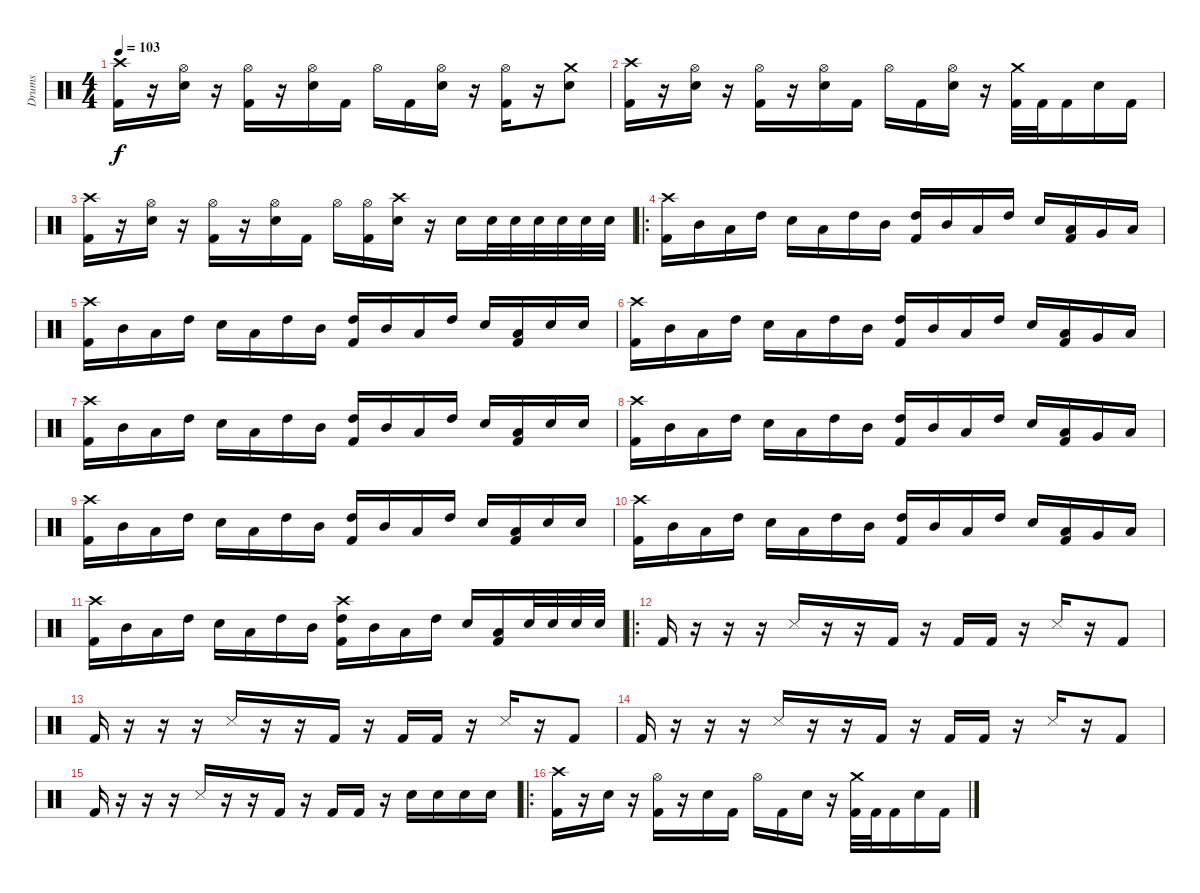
\track ("Drums" "Drums") {instrument percussion}
\staff {score}
\articulation defaults
\ts (4 4)
\tempo 103
\clef neutral
\ks c
("Crash high (hit)" "Kick (hit) 2").16{dy f} r.16 ("Hi-Hat (open)" "Snare (hit) 2").16 r.16 ("Hi-Hat (open)" "Kick (hit) 2").16 r.16 ("Hi-Hat (open)" "Snare (hit) 2").16 "Kick (hit) 2".16 "Hi-Hat (open)".16 "Kick (hit) 2".16 ("Hi-Hat (open)" "Snare (hit) 2").16 r.16 ("Hi-Hat (open)" "Kick (hit) 2").16 r.16 ("Crash medium (hit)" "Snare (hit) 2").8 |
("Crash high (hit)" "Kick (hit) 2").16 r.16 ("Hi-Hat (open)" "Snare (hit) 2").16 r.16 ("Hi-Hat (open)" "Kick (hit) 2").16 r.16 ("Hi-Hat (open)" "Snare (hit) 2").16 "Kick (hit) 2".16 "Hi-Hat (open)".16 "Kick (hit) 2".16 ("Hi-Hat (open)" "Snare (hit) 2").16 r.16 ("Crash medium (hit)" "Kick (hit) 2").32 "Kick (hit) 2".32 "Kick (hit) 2".16 "Snare (hit) 2".16 "Kick (hit) 2".16 |
("Crash high (hit)" "Kick (hit) 2").16 r.16 ("Hi-Hat (open)" "Snare (hit) 2").16 r.16 ("Hi-Hat (open)" "Kick (hit) 2").16 r.16 ("Hi-Hat (open)" "Snare (hit) 2").16 "Kick (hit) 2".16 "Hi-Hat (open)".16 ("Hi-Hat (open)" "Kick (hit) 2").16 ("Crash high (hit)" "Snare (hit) 2").16 r.16 "Snare (hit) 2".16 "Snare (hit) 2".32 "Snare (hit) 2".32 "Snare (hit) 2".32 "Snare (hit) 2".32 "Snare (hit) 2".32 "Snare (hit) 2".32 |
\ro
("Crash high (hit)" "Kick (hit) 2").16 "Mid Tom (hit)".16 "Low Tom (hit)".16 "High Tom (hit)".16 "Snare (hit) 2".16 "Low Tom (hit)".16 "High Tom (hit)".16 "Mid Tom (hit)".16 ("High Tom (hit)" "Kick (hit) 2").16 "Mid Tom (hit)".16 "Low Tom (hit)".16 "High Tom (hit)".16 "Snare (hit) 2".16 ("Low Tom (hit)" "Kick (hit) 2").16 "Very Low Tom (hit)".16 "Low Tom (hit)".16 |
("Crash high (hit)" "Kick (hit) 2").16 "Mid Tom (hit)".16 "Low Tom (hit)".16 "High Tom (hit)".16 "Snare (hit) 2".16 "Low Tom (hit)".16 "High Tom (hit)".16 "Mid Tom (hit)".16 ("High Tom (hit)" "Kick (hit) 2").16 "Mid Tom (hit)".16 "Low Tom (hit)".16 "High Tom (hit)".16 "Snare (hit) 2".16 ("Low Tom (hit)" "Kick (hit) 2").16 "Snare (hit) 2".16 "Snare (hit) 2".16 |
("Crash high (hit)" "Kick (hit) 2").16 "Mid Tom (hit)".16 "Low Tom (hit)".16 "High Tom (hit)".16 "Snare (hit) 2".16 "Low Tom (hit)".16 "High Tom (hit)".16 "Mid Tom (hit)".16 ("High Tom (hit)" "Kick (hit) 2").16 "Mid Tom (hit)".16 "Low Tom (hit)".16 "High Tom (hit)".16 "Snare (hit) 2".16 ("Low Tom (hit)" "Kick (hit) 2").16 "Very Low Tom (hit)".16 "Low Tom (hit)".16 |
("Crash high (hit)" "Kick (hit) 2").16 "Mid Tom (hit)".16 "Low Tom (hit)".16 "High Tom (hit)".16 "Snare (hit) 2".16 "Low Tom (hit)".16 "High Tom (hit)".16 "Mid Tom (hit)".16 ("High Tom (hit)" "Kick (hit) 2").16 "Mid Tom (hit)".16 "Low Tom (hit)".16 "High Tom (hit)".16 "Snare (hit) 2".16 ("Low Tom (hit)" "Kick (hit) 2").16 "Snare (hit) 2".16 "Snare (hit) 2".16 |
("Crash high (hit)" "Kick (hit) 2").16 "Mid Tom (hit)".16 "Low Tom (hit)".16 "High Tom (hit)".16 "Snare (hit) 2".16 "Low Tom (hit)".16 "High Tom (hit)".16 "Mid Tom (hit)".16 ("High Tom (hit)" "Kick (hit) 2").16 "Mid Tom (hit)".16 "Low Tom (hit)".16 "High Tom (hit)".16 "Snare (hit) 2".16 ("Low Tom (hit)" "Kick (hit) 2").16 "Very Low Tom (hit)".16 "Low Tom (hit)".16 |
("Crash high (hit)" "Kick (hit) 2").16 "Mid Tom (hit)".16 "Low Tom (hit)".16 "High Tom (hit)".16 "Snare (hit) 2".16 "Low Tom (hit)".16 "High Tom (hit)".16 "Mid Tom (hit)".16 ("High Tom (hit)" "Kick (hit) 2").16 "Mid Tom (hit)".16 "Low Tom (hit)".16 "High Tom (hit)".16 "Snare (hit) 2".16 ("Low Tom (hit)" "Kick (hit) 2").16 "Snare (hit) 2".16 "Snare (hit) 2".16 |
("Crash high (hit)" "Kick (hit) 2").16 "Mid Tom (hit)".16 "Low Tom (hit)".16 "High Tom (hit)".16 "Snare (hit) 2".16 "Low Tom (hit)".16 "High Tom (hit)".16 "Mid Tom (hit)".16 ("High Tom (hit)" "Kick (hit) 2").16 "Mid Tom (hit)".16 "Low Tom (hit)".16 "High Tom (hit)".16 "Snare (hit) 2".16 ("Low Tom (hit)" "Kick (hit) 2").16 "Very Low Tom (hit)".16 "Low Tom (hit)".16 |
("Crash high (hit)" "Kick (hit) 2").16 "Mid Tom (hit)".16 "Low Tom (hit)".16 "High Tom (hit)".16 "Snare (hit) 2".16 "Low Tom (hit)".16 "High Tom (hit)".16 "Mid Tom (hit)".16 ("Crash high (hit)" "High Tom (hit)" "Kick (hit) 2").16 "Mid Tom (hit)".16 "Low Tom (hit)".16 "High Tom (hit)".16 "Snare (hit) 2".16 ("Low Tom (hit)" "Kick (hit) 2").16 "Snare (hit) 2".32 "Snare (hit) 2".32 "Snare (hit) 2".32 "Snare (hit) 2".32 |
\ro "Kick (hit) 2".16
r.16 r.16 r.16 "Snare (side stick) 3".16 r.16 r.16 "Kick (hit) 2".16 r.16 "Kick (hit) 2".16 "Kick (hit) 2".16 r.16 "Snare (side stick) 3".16 r.16 "Kick (hit) 2".8 |
"Kick (hit) 2".16 r.16 r.16 r.16 "Snare (side stick) 3".16 r.16 r.16 "Kick (hit) 2".16 r.16 "Kick (hit) 2".16 "Kick (hit) 2".16 r.16 "Snare (side stick) 3".16 r.16 "Kick (hit) 2".8 |
"Kick (hit) 2".16 r.16 r.16 r.16 "Snare (side stick) 3".16 r.16 r.16 "Kick (hit) 2".16 r.16 "Kick (hit) 2".16 "Kick (hit) 2".16 r.16 "Snare (side stick) 3".16 r.16 "Kick (hit) 2".8 |
"Kick (hit) 2".16 r.16 r.16 r.16 "Snare (side stick) 3".16 r.16 r.16 "Kick (hit) 2".16 r.16 "Kick (hit) 2".16 "Kick (hit) 2".16 r.16 "Snare (hit) 2".16 "Snare (hit) 2".16 "Snare (hit) 2".16 "Snare (hit) 2".16 |
\ro
("Crash high (hit)" "Kick (hit) 2").16 r.16 "Snare (hit) 2".16 r.16 ("Hi-Hat (open)" "Kick (hit) 2").16 r.16 "Snare (hit) 2".16 "Kick (hit) 2".16 "Hi-Hat (open)".16 "Kick (hit) 2".16 "Snare (hit) 2".16 r.16 ("Crash medium (hit)" "Kick (hit) 2").32 "Kick (hit) 2".32 "Kick (hit) 2".16 "Snare (hit) 2".16 "Kick (hit) 2".16
